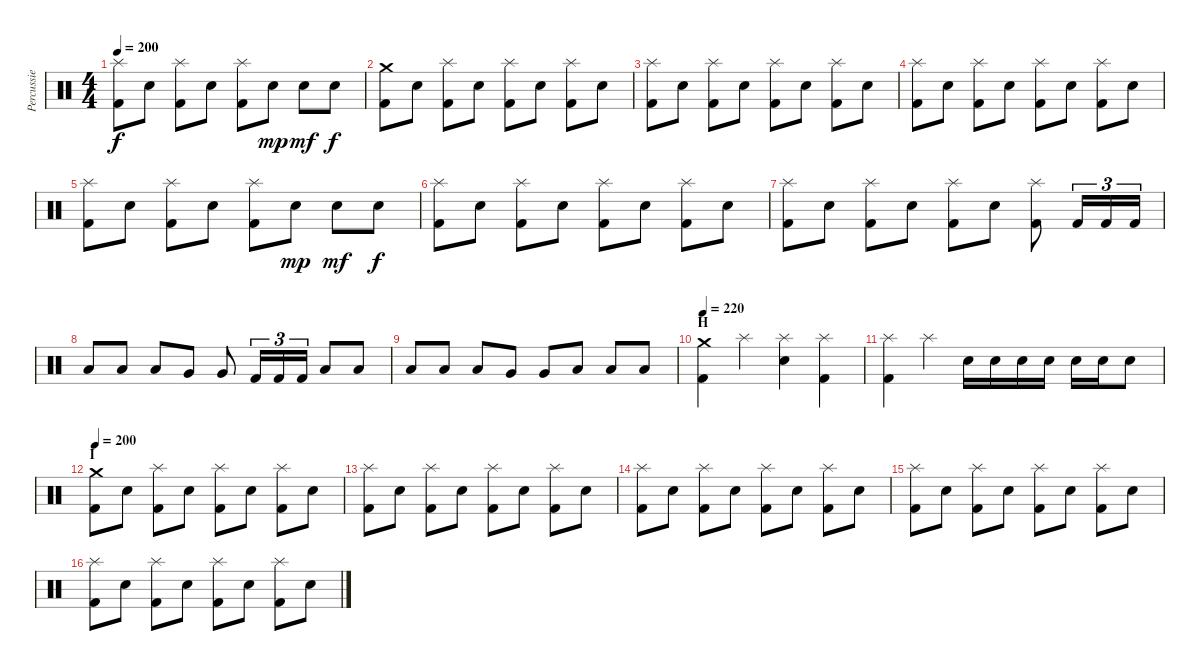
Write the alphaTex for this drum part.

\track ("Percussie" "Percussie") {instrument percussion}
\staff {score}
\articulation defaults
\ts (4 4)
\tempo 200
\clef neutral
\ks c
("Splash (hit)" "Kick (hit) 2").8{dy f} "Electric Snare (hit)".8 ("Splash (hit)" "Kick (hit) 2").8 "Electric Snare (hit)".8 ("Splash (hit)" "Kick (hit) 2").8 "Electric Snare (hit)".8{dy mp} "Electric Snare (hit)".8{dy mf} "Electric Snare (hit)".8{dy f} |
("Crash medium (hit)" "Kick (hit) 2").8 "Electric Snare (hit)".8 ("Splash (hit)" "Kick (hit) 2").8 "Electric Snare (hit)".8 ("Splash (hit)" "Kick (hit) 2").8 "Electric Snare (hit)".8 ("Splash (hit)" "Kick (hit) 2").8 "Electric Snare (hit)".8 |
("Splash (hit)" "Kick (hit) 2").8 "Electric Snare (hit)".8 ("Splash (hit)" "Kick (hit) 2").8 "Electric Snare (hit)".8 ("Splash (hit)" "Kick (hit) 2").8 "Electric Snare (hit)".8 ("Splash (hit)" "Kick (hit) 2").8 "Electric Snare (hit)".8 |
("Splash (hit)" "Kick (hit) 2").8 "Electric Snare (hit)".8 ("Splash (hit)" "Kick (hit) 2").8 "Electric Snare (hit)".8 ("Splash (hit)" "Kick (hit) 2").8 "Electric Snare (hit)".8 ("Splash (hit)" "Kick (hit) 2").8 "Electric Snare (hit)".8 |
("Splash (hit)" "Kick (hit) 2").8 "Electric Snare (hit)".8 ("Splash (hit)" "Kick (hit) 2").8 "Electric Snare (hit)".8 ("Splash (hit)" "Kick (hit) 2").8 "Electric Snare (hit)".8{dy mp} "Electric Snare (hit)".8{dy mf} "Electric Snare (hit)".8{dy f} |
("Splash (hit)" "Kick (hit) 2").8 "Electric Snare (hit)".8 ("Splash (hit)" "Kick (hit) 2").8 "Electric Snare (hit)".8 ("Splash (hit)" "Kick (hit) 2").8 "Electric Snare (hit)".8 ("Splash (hit)" "Kick (hit) 2").8 "Electric Snare (hit)".8 |
("Splash (hit)" "Kick (hit) 2").8 "Electric Snare (hit)".8 ("Splash (hit)" "Kick (hit) 2").8 "Electric Snare (hit)".8 ("Splash (hit)" "Kick (hit) 2").8 "Electric Snare (hit)".8 ("Splash (hit)" "Kick (hit) 2").8 "Kick (hit) 2".16{tu (3 2)} "Kick (hit) 2".16{tu (3 2)} "Kick (hit) 2".16{tu (3 2)} |
"Low Tom (hit)".8 "Low Tom (hit)".8 "Low Tom (hit)".8 "Very Low Tom (hit)".8 "Very Low Tom (hit)".8 "Kick (hit) 2".16{tu (3 2)} "Kick (hit) 2".16{tu (3 2)} "Kick (hit) 2".16{tu (3 2)} "Low Tom (hit)".8 "Low Tom (hit)".8 |
"Low Tom (hit)".8 "Low Tom (hit)".8 "Low Tom (hit)".8 "Very Low Tom (hit)".8 "Very Low Tom (hit)".8 "Low Floor Tom (hit)".8 "Low Floor Tom (hit)".8 "Low Floor Tom (hit)".8 |
\section ("" "H")
\tempo 220
("Crash medium (hit)" "Kick (hit) 2").4 "Splash (hit)".4 ("Splash (hit)" "Electric Snare (hit)").4 ("Splash (hit)" "Kick (hit) 2").4 |
("Splash (hit)" "Kick (hit) 2").4 "Splash (hit)".4 "Electric Snare (hit)".16 "Electric Snare (hit)".16 "Electric Snare (hit)".16 "Electric Snare (hit)".16 "Electric Snare (hit)".16 "Electric Snare (hit)".16 "Electric Snare (hit)".8 |
\section ("" "I")
\tempo 200
("Crash medium (hit)" "Kick (hit) 2").8 "Electric Snare (hit)".8 ("Splash (hit)" "Kick (hit) 2").8 "Electric Snare (hit)".8 ("Splash (hit)" "Kick (hit) 2").8 "Electric Snare (hit)".8 ("Splash (hit)" "Kick (hit) 2").8 "Electric Snare (hit)".8 |
("Splash (hit)" "Kick (hit) 2").8 "Electric Snare (hit)".8 ("Splash (hit)" "Kick (hit) 2").8 "Electric Snare (hit)".8 ("Splash (hit)" "Kick (hit) 2").8 "Electric Snare (hit)".8 ("Splash (hit)" "Kick (hit) 2").8 "Electric Snare (hit)".8 |
("Splash (hit)" "Kick (hit) 2").8 "Electric Snare (hit)".8 ("Splash (hit)" "Kick (hit) 2").8 "Electric Snare (hit)".8 ("Splash (hit)" "Kick (hit) 2").8 "Electric Snare (hit)".8 ("Splash (hit)" "Kick (hit) 2").8 "Electric Snare (hit)".8 |
("Splash (hit)" "Kick (hit) 2").8 "Electric Snare (hit)".8 ("Splash (hit)" "Kick (hit) 2").8 "Electric Snare (hit)".8 ("Splash (hit)" "Kick (hit) 2").8 "Electric Snare (hit)".8 ("Splash (hit)" "Kick (hit) 2").8 "Electric Snare (hit)".8 |
("Splash (hit)" "Kick (hit) 2").8 "Electric Snare (hit)".8 ("Splash (hit)" "Kick (hit) 2").8 "Electric Snare (hit)".8 ("Splash (hit)" "Kick (hit) 2").8 "Electric Snare (hit)".8 ("Splash (hit)" "Kick (hit) 2").8 "Electric Snare (hit)".8
